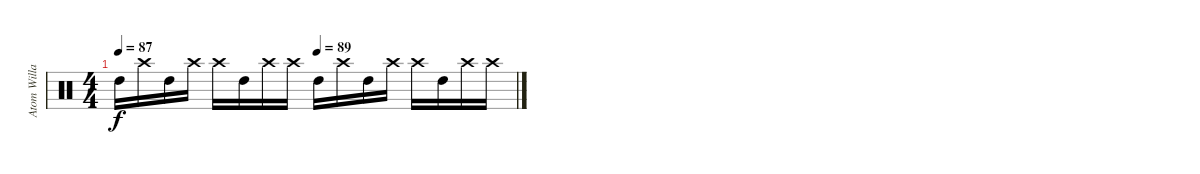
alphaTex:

\track ("Atom Willard (Drums)" "Atom Willa") {instrument percussion}
\staff {score}
\articulation defaults
\ts (4 4)
\tempo 87
\tempo (89 0.5)
\clef neutral
\ks c "High Tom (hit)".16{dy f volume 16} "Crash high (hit)".16 "High Tom (hit)".16 "Crash high (hit)".16 "Crash high (hit)".16{volume 16} "High Tom (hit)".16 "Crash high (hit)".16 "Crash high (hit)".16 "High Tom (hit)".16 "Crash high (hit)".16 "High Tom (hit)".16 "Crash high (hit)".16 "Crash high (hit)".16 "High Tom (hit)".16 "Crash high (hit)".16 "Crash high (hit)".16
